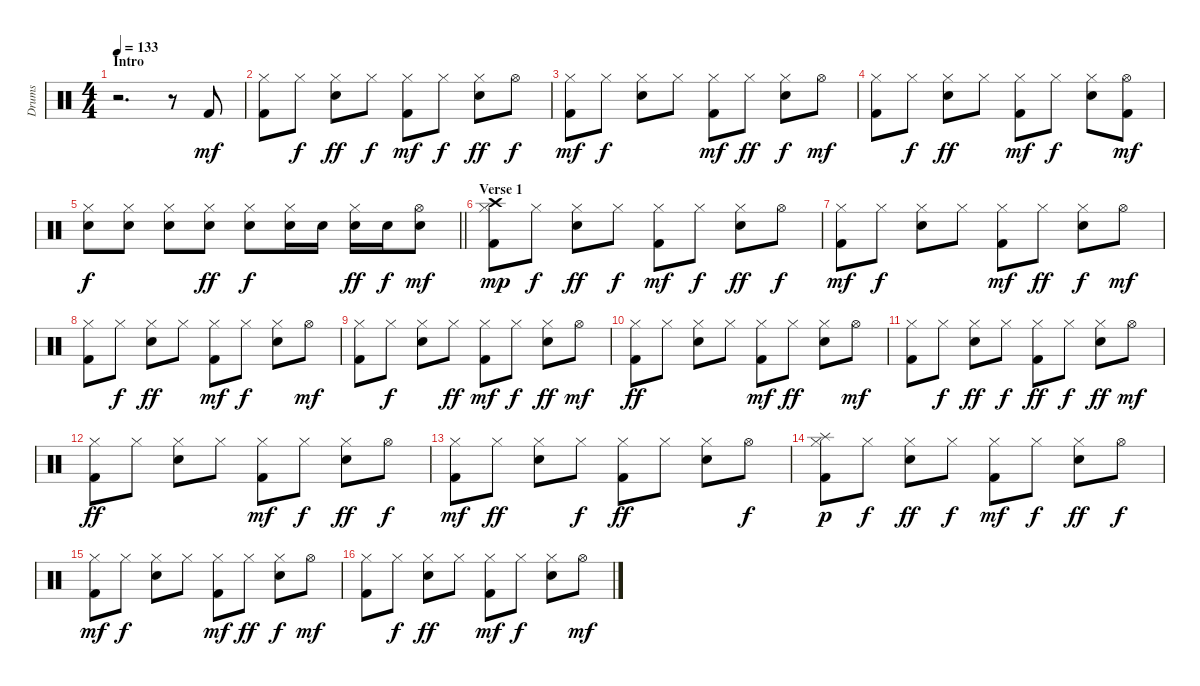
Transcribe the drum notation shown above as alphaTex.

\track ("Drums   " "Drums   ") {instrument percussion}
\staff {score}
\articulation defaults
\ts (4 4)
\section ("" "Intro")
\tempo 133
\clef neutral
\ks c
r.2{d dy mf} r.8 "Kick (hit) 2".8 |
("Kick (hit) 2" "Hi-Hat (closed)").8 "Hi-Hat (closed)".8{dy f} ("Electric Snare (hit)" "Hi-Hat (closed)").8{dy ff} "Hi-Hat (closed)".8{dy f} ("Kick (hit) 2" "Hi-Hat (closed)").8{dy mf} "Hi-Hat (closed)".8{dy f} ("Electric Snare (hit)" "Hi-Hat (closed)").8{dy ff} "Hi-Hat (open)".8{dy f} |
("Kick (hit) 2" "Hi-Hat (closed)").8{dy mf} "Hi-Hat (closed)".8{dy f} ("Electric Snare (hit)" "Hi-Hat (closed)").8 "Hi-Hat (closed)".8 ("Kick (hit) 2" "Hi-Hat (closed)").8{dy mf} "Hi-Hat (closed)".8{dy ff} ("Electric Snare (hit)" "Hi-Hat (closed)").8{dy f} "Hi-Hat (open)".8{dy mf} |
("Kick (hit) 2" "Hi-Hat (closed)").8 "Hi-Hat (closed)".8{dy f} ("Electric Snare (hit)" "Hi-Hat (closed)").8{dy ff} "Hi-Hat (closed)".8 ("Kick (hit) 2" "Hi-Hat (closed)").8{dy mf} "Hi-Hat (closed)".8{dy f} ("Electric Snare (hit)" "Hi-Hat (closed)").8 ("Kick (hit) 2" "Hi-Hat (open)").8{dy mf} |
\barLineRight lightlight
("Electric Snare (hit)" "Hi-Hat (closed)").8{dy f} ("Electric Snare (hit)" "Hi-Hat (closed)").8 ("Electric Snare (hit)" "Hi-Hat (closed)").8 ("Electric Snare (hit)" "Hi-Hat (closed)").8{dy ff} ("Electric Snare (hit)" "Hi-Hat (closed)").8{dy f} ("Electric Snare (hit)" "Hi-Hat (closed)").16 "Electric Snare (hit)".16 ("Electric Snare (hit)" "Hi-Hat (closed)").16{dy ff} "Electric Snare (hit)".16{dy f} ("Electric Snare (hit)" "Hi-Hat (open)").8{dy mf} |
\section ("" "Verse 1")
("Kick (hit) 2" "Hi-Hat (closed)" "Crash high (hit)").8{dy mp} "Hi-Hat (closed)".8{dy f} ("Electric Snare (hit)" "Hi-Hat (closed)").8{dy ff} "Hi-Hat (closed)".8{dy f} ("Kick (hit) 2" "Hi-Hat (closed)").8{dy mf} "Hi-Hat (closed)".8{dy f} ("Electric Snare (hit)" "Hi-Hat (closed)").8{dy ff} "Hi-Hat (open)".8{dy f} |
("Kick (hit) 2" "Hi-Hat (closed)").8{dy mf} "Hi-Hat (closed)".8{dy f} ("Electric Snare (hit)" "Hi-Hat (closed)").8 "Hi-Hat (closed)".8 ("Kick (hit) 2" "Hi-Hat (closed)").8{dy mf} "Hi-Hat (closed)".8{dy ff} ("Electric Snare (hit)" "Hi-Hat (closed)").8{dy f} "Hi-Hat (open)".8{dy mf} |
("Kick (hit) 2" "Hi-Hat (closed)").8 "Hi-Hat (closed)".8{dy f} ("Electric Snare (hit)" "Hi-Hat (closed)").8{dy ff} "Hi-Hat (closed)".8 ("Kick (hit) 2" "Hi-Hat (closed)").8{dy mf} "Hi-Hat (closed)".8{dy f} ("Electric Snare (hit)" "Hi-Hat (closed)").8 "Hi-Hat (open)".8{dy mf} |
("Kick (hit) 2" "Hi-Hat (closed)").8 "Hi-Hat (closed)".8{dy f} ("Electric Snare (hit)" "Hi-Hat (closed)").8 "Hi-Hat (closed)".8{dy ff} ("Kick (hit) 2" "Hi-Hat (closed)").8{dy mf} "Hi-Hat (closed)".8{dy f} ("Electric Snare (hit)" "Hi-Hat (closed)").8{dy ff} "Hi-Hat (open)".8{dy mf} |
("Kick (hit) 2" "Hi-Hat (closed)").8{dy ff} "Hi-Hat (closed)".8 ("Electric Snare (hit)" "Hi-Hat (closed)").8 "Hi-Hat (closed)".8 ("Kick (hit) 2" "Hi-Hat (closed)").8{dy mf} "Hi-Hat (closed)".8{dy ff} ("Electric Snare (hit)" "Hi-Hat (closed)").8 "Hi-Hat (open)".8{dy mf} |
("Kick (hit) 2" "Hi-Hat (closed)").8 "Hi-Hat (closed)".8{dy f} ("Electric Snare (hit)" "Hi-Hat (closed)").8{dy ff} "Hi-Hat (closed)".8{dy f} ("Kick (hit) 2" "Hi-Hat (closed)").8{dy ff} "Hi-Hat (closed)".8{dy f} ("Electric Snare (hit)" "Hi-Hat (closed)").8{dy ff} "Hi-Hat (open)".8{dy mf} |
("Kick (hit) 2" "Hi-Hat (closed)").8{dy ff} "Hi-Hat (closed)".8 ("Electric Snare (hit)" "Hi-Hat (closed)").8 "Hi-Hat (closed)".8 ("Kick (hit) 2" "Hi-Hat (closed)").8{dy mf} "Hi-Hat (closed)".8{dy f} ("Electric Snare (hit)" "Hi-Hat (closed)").8{dy ff} "Hi-Hat (open)".8{dy f} |
("Kick (hit) 2" "Hi-Hat (closed)").8{dy mf} "Hi-Hat (closed)".8{dy ff} ("Electric Snare (hit)" "Hi-Hat (closed)").8 "Hi-Hat (closed)".8{dy f} ("Kick (hit) 2" "Hi-Hat (closed)").8{dy ff} "Hi-Hat (closed)".8 ("Hi-Hat (closed)" "Electric Snare (hit)").8 "Hi-Hat (open)".8{dy f} |
("Kick (hit) 2" "Hi-Hat (closed)" "Splash (hit)").8{dy p} "Hi-Hat (closed)".8{dy f} ("Electric Snare (hit)" "Hi-Hat (closed)").8{dy ff} "Hi-Hat (closed)".8{dy f} ("Kick (hit) 2" "Hi-Hat (closed)").8{dy mf} "Hi-Hat (closed)".8{dy f} ("Electric Snare (hit)" "Hi-Hat (closed)").8{dy ff} "Hi-Hat (open)".8{dy f} |
("Kick (hit) 2" "Hi-Hat (closed)").8{dy mf} "Hi-Hat (closed)".8{dy f} ("Electric Snare (hit)" "Hi-Hat (closed)").8 "Hi-Hat (closed)".8 ("Kick (hit) 2" "Hi-Hat (closed)").8{dy mf} "Hi-Hat (closed)".8{dy ff} ("Electric Snare (hit)" "Hi-Hat (closed)").8{dy f} "Hi-Hat (open)".8{dy mf} |
("Kick (hit) 2" "Hi-Hat (closed)").8 "Hi-Hat (closed)".8{dy f} ("Electric Snare (hit)" "Hi-Hat (closed)").8{dy ff} "Hi-Hat (closed)".8 ("Kick (hit) 2" "Hi-Hat (closed)").8{dy mf} "Hi-Hat (closed)".8{dy f} ("Electric Snare (hit)" "Hi-Hat (closed)").8 "Hi-Hat (open)".8{dy mf}
